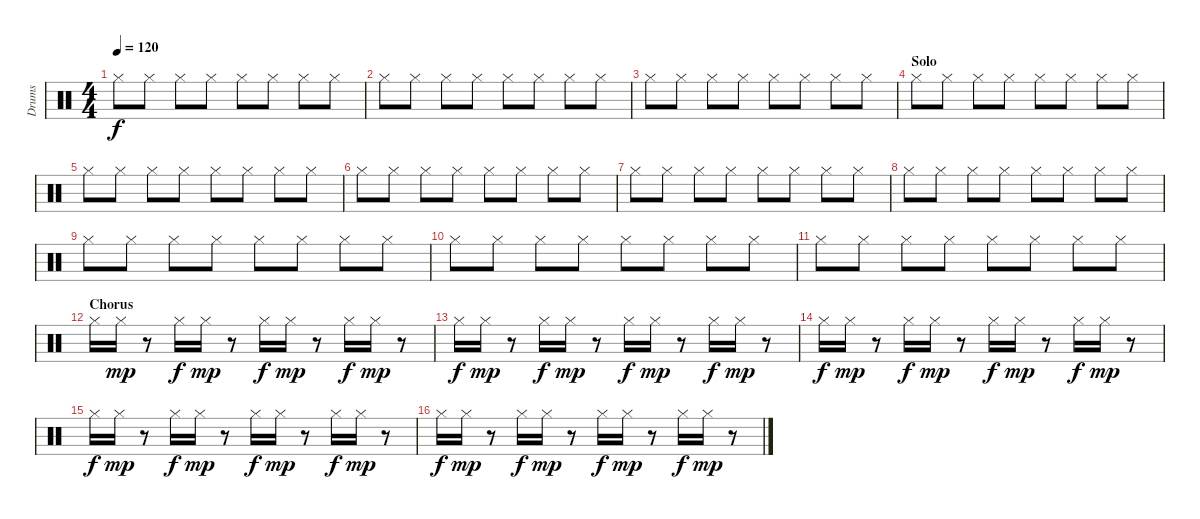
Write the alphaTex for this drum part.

\track ("Drums" "Drums") {instrument percussion}
\staff {score}
\articulation defaults
\ts (4 4)
\tempo 120
\clef neutral
\ks c "Hi-Hat (closed)".8{dy f} "Hi-Hat (closed)".8 "Hi-Hat (closed)".8 "Hi-Hat (closed)".8 "Hi-Hat (closed)".8 "Hi-Hat (closed)".8 "Hi-Hat (closed)".8 "Hi-Hat (closed)".8
|
"Hi-Hat (closed)".8 "Hi-Hat (closed)".8 "Hi-Hat (closed)".8 "Hi-Hat (closed)".8 "Hi-Hat (closed)".8 "Hi-Hat (closed)".8 "Hi-Hat (closed)".8 "Hi-Hat (closed)".8 |
"Hi-Hat (closed)".8 "Hi-Hat (closed)".8 "Hi-Hat (closed)".8 "Hi-Hat (closed)".8 "Hi-Hat (closed)".8 "Hi-Hat (closed)".8 "Hi-Hat (closed)".8 "Hi-Hat (closed)".8 |
\section ("" "Solo")
"Hi-Hat (closed)".8 "Hi-Hat (closed)".8 "Hi-Hat (closed)".8 "Hi-Hat (closed)".8 "Hi-Hat (closed)".8 "Hi-Hat (closed)".8 "Hi-Hat (closed)".8 "Hi-Hat (closed)".8 |
"Hi-Hat (closed)".8 "Hi-Hat (closed)".8 "Hi-Hat (closed)".8 "Hi-Hat (closed)".8 "Hi-Hat (closed)".8 "Hi-Hat (closed)".8 "Hi-Hat (closed)".8 "Hi-Hat (closed)".8 |
"Hi-Hat (closed)".8 "Hi-Hat (closed)".8 "Hi-Hat (closed)".8 "Hi-Hat (closed)".8 "Hi-Hat (closed)".8 "Hi-Hat (closed)".8 "Hi-Hat (closed)".8 "Hi-Hat (closed)".8 |
"Hi-Hat (closed)".8 "Hi-Hat (closed)".8 "Hi-Hat (closed)".8 "Hi-Hat (closed)".8 "Hi-Hat (closed)".8 "Hi-Hat (closed)".8 "Hi-Hat (closed)".8 "Hi-Hat (closed)".8 |
"Hi-Hat (closed)".8 "Hi-Hat (closed)".8 "Hi-Hat (closed)".8 "Hi-Hat (closed)".8 "Hi-Hat (closed)".8 "Hi-Hat (closed)".8 "Hi-Hat (closed)".8 "Hi-Hat (closed)".8 |
"Hi-Hat (closed)".8 "Hi-Hat (closed)".8 "Hi-Hat (closed)".8 "Hi-Hat (closed)".8 "Hi-Hat (closed)".8 "Hi-Hat (closed)".8 "Hi-Hat (closed)".8 "Hi-Hat (closed)".8 |
"Hi-Hat (closed)".8 "Hi-Hat (closed)".8 "Hi-Hat (closed)".8 "Hi-Hat (closed)".8 "Hi-Hat (closed)".8 "Hi-Hat (closed)".8 "Hi-Hat (closed)".8 "Hi-Hat (closed)".8 |
"Hi-Hat (closed)".8 "Hi-Hat (closed)".8 "Hi-Hat (closed)".8 "Hi-Hat (closed)".8 "Hi-Hat (closed)".8 "Hi-Hat (closed)".8 "Hi-Hat (closed)".8 "Hi-Hat (closed)".8 |
\section ("" "Chorus")
"Hi-Hat (closed)".16 "Hi-Hat (closed)".16{dy mp} r.8 "Hi-Hat (closed)".16{dy f} "Hi-Hat (closed)".16{dy mp} r.8 "Hi-Hat (closed)".16{dy f} "Hi-Hat (closed)".16{dy mp} r.8 "Hi-Hat (closed)".16{dy f} "Hi-Hat (closed)".16{dy mp} r.8 |
"Hi-Hat (closed)".16{dy f} "Hi-Hat (closed)".16{dy mp} r.8 "Hi-Hat (closed)".16{dy f} "Hi-Hat (closed)".16{dy mp} r.8 "Hi-Hat (closed)".16{dy f} "Hi-Hat (closed)".16{dy mp} r.8 "Hi-Hat (closed)".16{dy f} "Hi-Hat (closed)".16{dy mp} r.8 |
"Hi-Hat (closed)".16{dy f} "Hi-Hat (closed)".16{dy mp} r.8 "Hi-Hat (closed)".16{dy f} "Hi-Hat (closed)".16{dy mp} r.8 "Hi-Hat (closed)".16{dy f} "Hi-Hat (closed)".16{dy mp} r.8 "Hi-Hat (closed)".16{dy f} "Hi-Hat (closed)".16{dy mp} r.8 |
"Hi-Hat (closed)".16{dy f} "Hi-Hat (closed)".16{dy mp} r.8 "Hi-Hat (closed)".16{dy f} "Hi-Hat (closed)".16{dy mp} r.8 "Hi-Hat (closed)".16{dy f} "Hi-Hat (closed)".16{dy mp} r.8 "Hi-Hat (closed)".16{dy f} "Hi-Hat (closed)".16{dy mp} r.8 |
"Hi-Hat (closed)".16{dy f} "Hi-Hat (closed)".16{dy mp} r.8 "Hi-Hat (closed)".16{dy f} "Hi-Hat (closed)".16{dy mp} r.8 "Hi-Hat (closed)".16{dy f} "Hi-Hat (closed)".16{dy mp} r.8 "Hi-Hat (closed)".16{dy f} "Hi-Hat (closed)".16{dy mp} r.8
